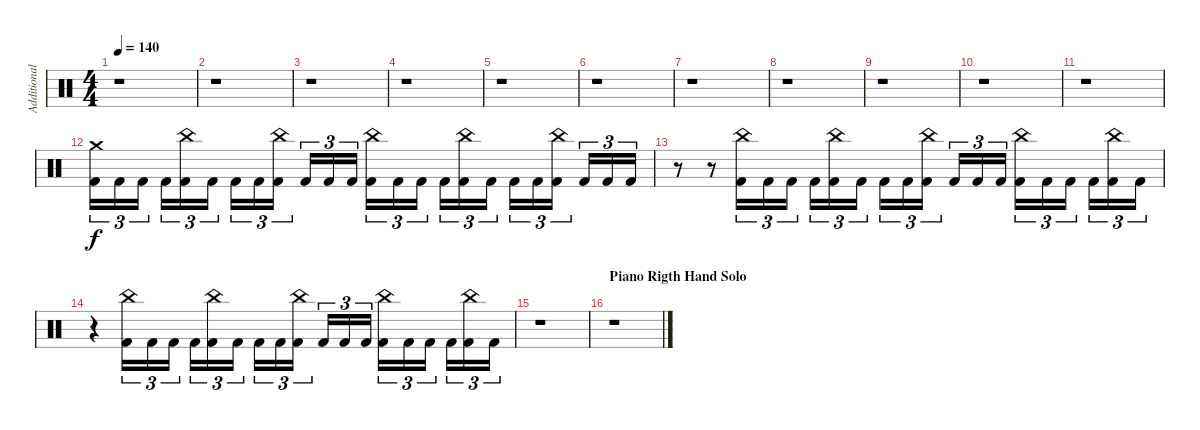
\track ("Additional Drums" "Additional") {instrument percussion}
\staff {score}
\articulation defaults
\ts (4 4)
\tempo 140
\clef neutral
\ks c
r.1{dy f} |
r.1 |
r.1 |
r.1 |
r.1 |
r.1 |
r.1 |
r.1 |
r.1 |
r.1 |
r.1 |
("Crash medium (hit)" "Kick (hit) 2").16{tu (3 2)} "Kick (hit) 2".16{tu (3 2)} "Kick (hit) 2".16{tu (3 2)} "Kick (hit) 2".16{tu (3 2)} ("China (hit)" "Kick (hit) 2").16{tu (3 2)} "Kick (hit) 2".16{tu (3 2)} "Kick (hit) 2".16{tu (3 2)} "Kick (hit) 2".16{tu (3 2)} ("China (hit)" "Kick (hit) 2").16{tu (3 2)} "Kick (hit) 2".16{tu (3 2)} "Kick (hit) 2".16{tu (3 2)} "Kick (hit) 2".16{tu (3 2)} ("China (hit)" "Kick (hit) 2").16{tu (3 2)} "Kick (hit) 2".16{tu (3 2)} "Kick (hit) 2".16{tu (3 2)} "Kick (hit) 2".16{tu (3 2)} ("China (hit)" "Kick (hit) 2").16{tu (3 2)} "Kick (hit) 2".16{tu (3 2)} "Kick (hit) 2".16{tu (3 2)} "Kick (hit) 2".16{tu (3 2)} ("China (hit)" "Kick (hit) 2").16{tu (3 2)} "Kick (hit) 2".16{tu (3 2)} "Kick (hit) 2".16{tu (3 2)} "Kick (hit) 2".16{tu (3 2)} |
r.8 r.8 ("China (hit)" "Kick (hit) 2").16{tu (3 2)} "Kick (hit) 2".16{tu (3 2)} "Kick (hit) 2".16{tu (3 2)} "Kick (hit) 2".16{tu (3 2)} ("China (hit)" "Kick (hit) 2").16{tu (3 2)} "Kick (hit) 2".16{tu (3 2)} "Kick (hit) 2".16{tu (3 2)} "Kick (hit) 2".16{tu (3 2)} ("China (hit)" "Kick (hit) 2").16{tu (3 2)} "Kick (hit) 2".16{tu (3 2)} "Kick (hit) 2".16{tu (3 2)} "Kick (hit) 2".16{tu (3 2)} ("China (hit)" "Kick (hit) 2").16{tu (3 2)} "Kick (hit) 2".16{tu (3 2)} "Kick (hit) 2".16{tu (3 2)} "Kick (hit) 2".16{tu (3 2)} ("China (hit)" "Kick (hit) 2").16{tu (3 2)} "Kick (hit) 2".16{tu (3 2)} |
r.4 ("China (hit)" "Kick (hit) 2").16{tu (3 2)} "Kick (hit) 2".16{tu (3 2)} "Kick (hit) 2".16{tu (3 2)} "Kick (hit) 2".16{tu (3 2)} ("China (hit)" "Kick (hit) 2").16{tu (3 2)} "Kick (hit) 2".16{tu (3 2)} "Kick (hit) 2".16{tu (3 2)} "Kick (hit) 2".16{tu (3 2)} ("China (hit)" "Kick (hit) 2").16{tu (3 2)} "Kick (hit) 2".16{tu (3 2)} "Kick (hit) 2".16{tu (3 2)} "Kick (hit) 2".16{tu (3 2)} ("China (hit)" "Kick (hit) 2").16{tu (3 2)} "Kick (hit) 2".16{tu (3 2)} "Kick (hit) 2".16{tu (3 2)} "Kick (hit) 2".16{tu (3 2)} ("China (hit)" "Kick (hit) 2").16{tu (3 2)} "Kick (hit) 2".16{tu (3 2)} |
r.1 |
\section ("" "Piano Rigth Hand Solo")
r.1
